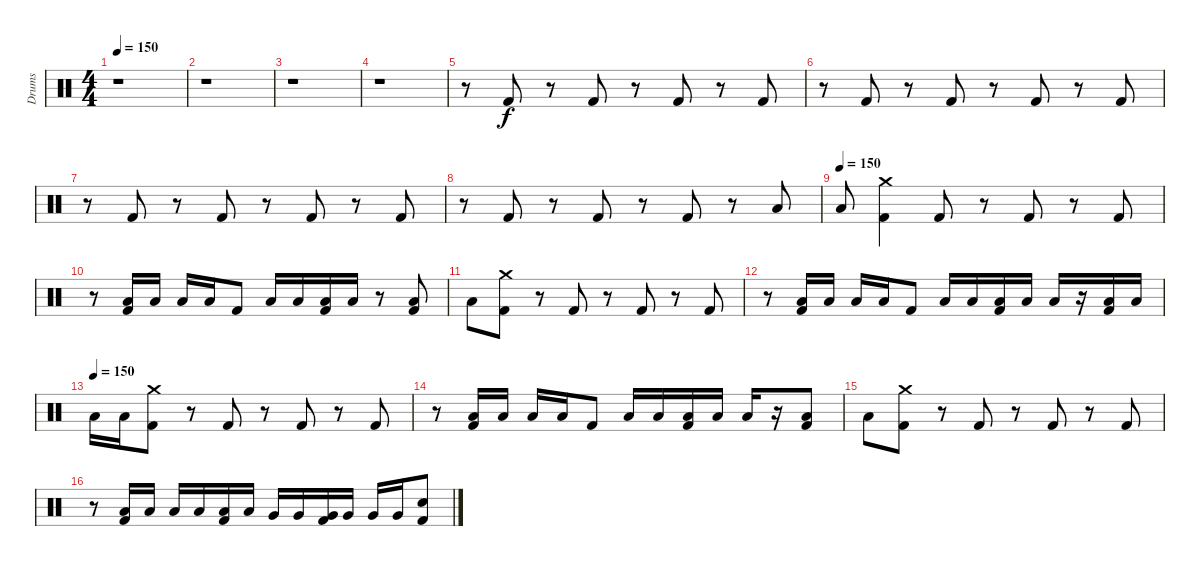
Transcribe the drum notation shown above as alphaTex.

\track ("Drums" "Drums") {instrument percussion}
\staff {score}
\articulation defaults
\ts (4 4)
\tempo 150
\clef neutral
\ks c
r.1{dy f} |
r.1 |
r.1 |
r.1 |
r.8 "Kick (hit) 2".8 r.8 "Kick (hit) 2".8 r.8 "Kick (hit) 2".8 r.8 "Kick (hit) 2".8 |
r.8 "Kick (hit) 2".8 r.8 "Kick (hit) 2".8 r.8 "Kick (hit) 2".8 r.8 "Kick (hit) 2".8 |
r.8 "Kick (hit) 2".8 r.8 "Kick (hit) 2".8 r.8 "Kick (hit) 2".8 r.8 "Kick (hit) 2".8 |
r.8 "Kick (hit) 2".8 r.8 "Kick (hit) 2".8 r.8 "Kick (hit) 2".8 r.8 "Low Tom (hit)".8 |
\tempo (150)
"Low Tom (hit)".8 ("Kick (hit) 2" "Crash medium (hit)").4 "Kick (hit) 2".8 r.8 "Kick (hit) 2".8 r.8 "Kick (hit) 2".8 |
r.8 ("Low Tom (hit)" "Kick (hit) 2").16 "Low Tom (hit)".16 "Low Tom (hit)".16 "Low Tom (hit)".16 "Kick (hit) 2".8 "Low Tom (hit)".16 "Low Tom (hit)".16 ("Low Tom (hit)" "Kick (hit) 2").16 "Low Tom (hit)".16 r.8 ("Low Tom (hit)" "Kick (hit) 2").8 |
"Low Tom (hit)".8 ("Crash medium (hit)" "Kick (hit) 2").8 r.8 "Kick (hit) 2".8 r.8 "Kick (hit) 2".8 r.8 "Kick (hit) 2".8 |
r.8 ("Low Tom (hit)" "Kick (hit) 2").16 "Low Tom (hit)".16 "Low Tom (hit)".16 "Low Tom (hit)".16 "Kick (hit) 2".8 "Low Tom (hit)".16 "Low Tom (hit)".16 ("Low Tom (hit)" "Kick (hit) 2").16 "Low Tom (hit)".16 "Low Tom (hit)".16 r.16 ("Low Tom (hit)" "Kick (hit) 2").16 "Low Tom (hit)".16 |
\tempo (150)
"Low Tom (hit)".16 "Low Tom (hit)".16 ("Crash medium (hit)" "Kick (hit) 2").8 r.8 "Kick (hit) 2".8 r.8 "Kick (hit) 2".8 r.8 "Kick (hit) 2".8 |
r.8 ("Low Tom (hit)" "Kick (hit) 2").16 "Low Tom (hit)".16 "Low Tom (hit)".16 "Low Tom (hit)".16 "Kick (hit) 2".8 "Low Tom (hit)".16 "Low Tom (hit)".16 ("Low Tom (hit)" "Kick (hit) 2").16 "Low Tom (hit)".16 "Low Tom (hit)".16 r.16 ("Low Tom (hit)" "Kick (hit) 2").8 |
"Low Tom (hit)".8 ("Crash medium (hit)" "Kick (hit) 2").8 r.8 "Kick (hit) 2".8 r.8 "Kick (hit) 2".8 r.8 "Kick (hit) 2".8 |
r.8 ("Kick (hit) 2" "Low Tom (hit)").16 "Low Tom (hit)".16 "Low Tom (hit)".16 "Low Tom (hit)".16 ("Kick (hit) 2" "Low Tom (hit)").16 "Low Tom (hit)".16 "Very Low Tom (hit)".16 "Very Low Tom (hit)".16 ("Kick (hit) 2" "Very Low Tom (hit)").16 "Very Low Tom (hit)".16 "Very Low Tom (hit)".16 "Very Low Tom (hit)".16 ("Snare (hit) 2" "Kick (hit) 2").8
